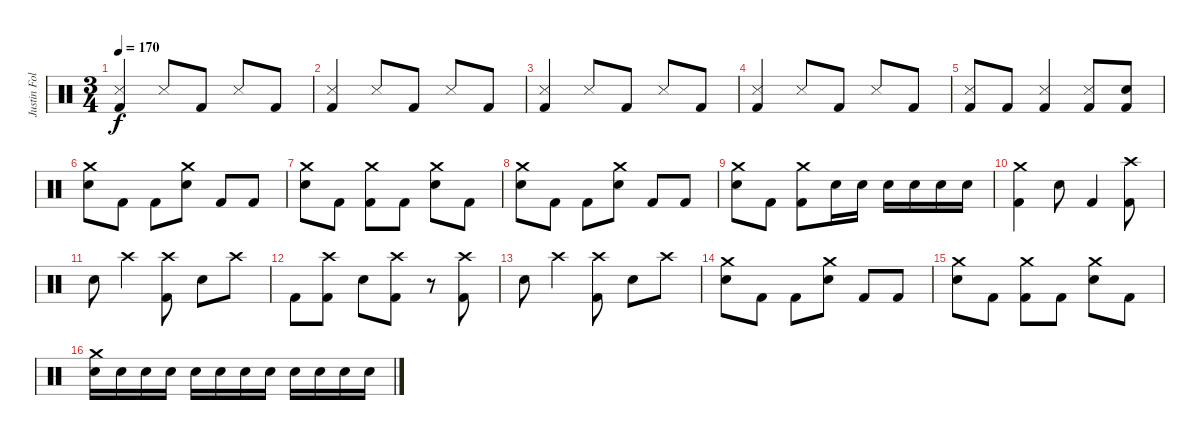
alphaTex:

\track ("Justin Foley" "Justin Fol") {instrument percussion}
\staff {score}
\articulation defaults
\ts (3 4)
\tempo 170
\clef neutral
\ks c
("Metronome (hit)" "Kick (hit) 2").4{dy f} "Metronome (hit)".8 "Kick (hit) 2".8 "Metronome (hit)".8 "Kick (hit) 2".8 |
("Metronome (hit)" "Kick (hit) 2").4 "Metronome (hit)".8 "Kick (hit) 2".8 "Metronome (hit)".8 "Kick (hit) 2".8 |
("Metronome (hit)" "Kick (hit) 2").4 "Metronome (hit)".8 "Kick (hit) 2".8 "Metronome (hit)".8 "Kick (hit) 2".8 |
("Metronome (hit)" "Kick (hit) 2").4 "Metronome (hit)".8 "Kick (hit) 2".8 "Metronome (hit)".8 "Kick (hit) 2".8 |
("Metronome (hit)" "Kick (hit) 2").8 "Kick (hit) 2".8 ("Metronome (hit)" "Kick (hit) 2").4 ("Metronome (hit)" "Kick (hit) 2").8 ("Snare (hit) 2" "Kick (hit) 2").8 |
("Crash medium (hit)" "Snare (hit) 2").8 "Kick (hit) 2".8 "Kick (hit) 2".8 ("Crash medium (hit)" "Snare (hit) 2").8 "Kick (hit) 2".8 "Kick (hit) 2".8 |
("Crash medium (hit)" "Snare (hit) 2").8 "Kick (hit) 2".8 ("Crash medium (hit)" "Kick (hit) 2").8 "Kick (hit) 2".8 ("Crash medium (hit)" "Snare (hit) 2").8 "Kick (hit) 2".8 |
("Crash medium (hit)" "Snare (hit) 2").8 "Kick (hit) 2".8 "Kick (hit) 2".8 ("Crash medium (hit)" "Snare (hit) 2").8 "Kick (hit) 2".8 "Kick (hit) 2".8 |
("Crash medium (hit)" "Snare (hit) 2").8 "Kick (hit) 2".8 ("Crash medium (hit)" "Kick (hit) 2").8 "Snare (hit) 2".16 "Snare (hit) 2".16 "Snare (hit) 2".16 "Snare (hit) 2".16 "Snare (hit) 2".16 "Snare (hit) 2".16 |
("Crash medium (hit)" "Kick (hit) 2").4 "Snare (hit) 2".8 "Kick (hit) 2".4 ("Crash high (hit)" "Kick (hit) 2").8 |
"Snare (hit) 2".8 "Crash high (hit)".4 ("Crash high (hit)" "Kick (hit) 2").8 "Snare (hit) 2".8 "Crash high (hit)".8 |
"Kick (hit) 2".8 ("Crash high (hit)" "Kick (hit) 2").8 "Snare (hit) 2".8 ("Crash high (hit)" "Kick (hit) 2").8 r.8 ("Crash high (hit)" "Kick (hit) 2").8 |
"Snare (hit) 2".8 "Crash high (hit)".4 ("Crash high (hit)" "Kick (hit) 2").8 "Snare (hit) 2".8 "Crash high (hit)".8 |
("Crash medium (hit)" "Snare (hit) 2").8 "Kick (hit) 2".8 "Kick (hit) 2".8 ("Crash medium (hit)" "Snare (hit) 2").8 "Kick (hit) 2".8 "Kick (hit) 2".8 |
("Crash medium (hit)" "Snare (hit) 2").8 "Kick (hit) 2".8 ("Crash medium (hit)" "Kick (hit) 2").8 "Kick (hit) 2".8 ("Crash medium (hit)" "Snare (hit) 2").8 "Kick (hit) 2".8 |
("Crash medium (hit)" "Snare (hit) 2").16 "Snare (hit) 2".16 "Snare (hit) 2".16 "Snare (hit) 2".16 "Snare (hit) 2".16 "Snare (hit) 2".16 "Snare (hit) 2".16 "Snare (hit) 2".16 "Snare (hit) 2".16 "Snare (hit) 2".16 "Snare (hit) 2".16 "Snare (hit) 2".16
